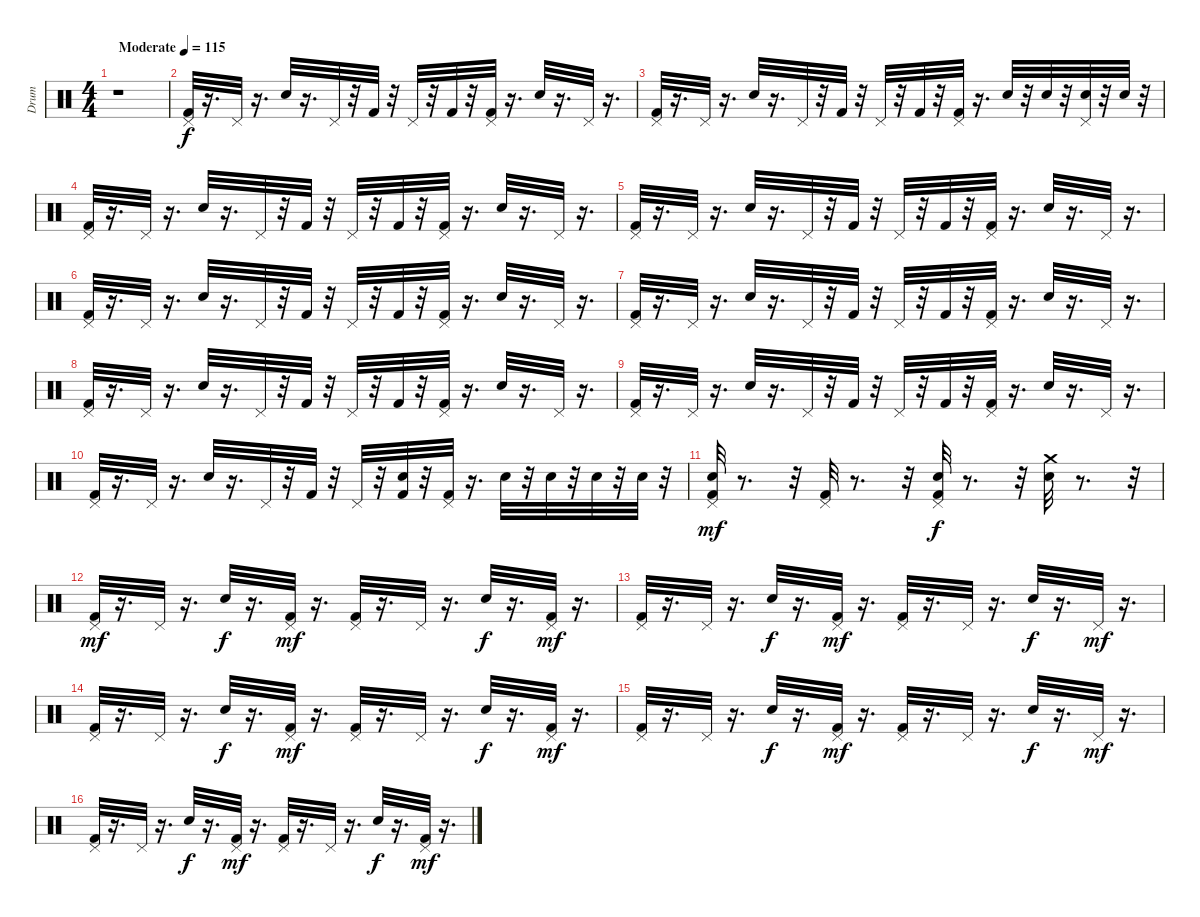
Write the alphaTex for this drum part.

\track ("Drum" "Drum") {instrument percussion}
\staff {score}
\articulation defaults
\ts (4 4)
\tempo (115 "Moderate")
\clef neutral
\ks c
r.1{dy f} |
("Kick (hit) 2" "Pedal Hi-Hat (hit)").32 r.16{d} "Pedal Hi-Hat (hit)".32 r.16{d} "Snare (hit) 2".32 r.16{d} "Pedal Hi-Hat (hit)".32 r.32 "Kick (hit) 2".32 r.32 "Pedal Hi-Hat (hit)".32 r.32 "Kick (hit) 2".32 r.32 ("Kick (hit) 2" "Pedal Hi-Hat (hit)").32 r.16{d} "Snare (hit) 2".32 r.16{d} "Pedal Hi-Hat (hit)".32 r.16{d} |
("Kick (hit) 2" "Pedal Hi-Hat (hit)").32 r.16{d} "Pedal Hi-Hat (hit)".32 r.16{d} "Snare (hit) 2".32 r.16{d} "Pedal Hi-Hat (hit)".32 r.32 "Kick (hit) 2".32 r.32 "Pedal Hi-Hat (hit)".32 r.32 "Kick (hit) 2".32 r.32 ("Kick (hit) 2" "Pedal Hi-Hat (hit)").32 r.16{d} "Snare (hit) 2".32 r.32 "Snare (hit) 2".32 r.32 ("Snare (hit) 2" "Pedal Hi-Hat (hit)").32 r.32 "Snare (hit) 2".32 r.32 |
("Kick (hit) 2" "Pedal Hi-Hat (hit)").32 r.16{d} "Pedal Hi-Hat (hit)".32 r.16{d} "Snare (hit) 2".32 r.16{d} "Pedal Hi-Hat (hit)".32 r.32 "Kick (hit) 2".32 r.32 "Pedal Hi-Hat (hit)".32 r.32 "Kick (hit) 2".32 r.32 ("Kick (hit) 2" "Pedal Hi-Hat (hit)").32 r.16{d} "Snare (hit) 2".32 r.16{d} "Pedal Hi-Hat (hit)".32 r.16{d} |
("Kick (hit) 2" "Pedal Hi-Hat (hit)").32 r.16{d} "Pedal Hi-Hat (hit)".32 r.16{d} "Snare (hit) 2".32 r.16{d} "Pedal Hi-Hat (hit)".32 r.32 "Kick (hit) 2".32 r.32 "Pedal Hi-Hat (hit)".32 r.32 "Kick (hit) 2".32 r.32 ("Kick (hit) 2" "Pedal Hi-Hat (hit)").32 r.16{d} "Snare (hit) 2".32 r.16{d} "Pedal Hi-Hat (hit)".32 r.16{d} |
("Kick (hit) 2" "Pedal Hi-Hat (hit)").32 r.16{d} "Pedal Hi-Hat (hit)".32 r.16{d} "Snare (hit) 2".32 r.16{d} "Pedal Hi-Hat (hit)".32 r.32 "Kick (hit) 2".32 r.32 "Pedal Hi-Hat (hit)".32 r.32 "Kick (hit) 2".32 r.32 ("Kick (hit) 2" "Pedal Hi-Hat (hit)").32 r.16{d} "Snare (hit) 2".32 r.16{d} "Pedal Hi-Hat (hit)".32 r.16{d} |
("Kick (hit) 2" "Pedal Hi-Hat (hit)").32 r.16{d} "Pedal Hi-Hat (hit)".32 r.16{d} "Snare (hit) 2".32 r.16{d} "Pedal Hi-Hat (hit)".32 r.32 "Kick (hit) 2".32 r.32 "Pedal Hi-Hat (hit)".32 r.32 "Kick (hit) 2".32 r.32 ("Kick (hit) 2" "Pedal Hi-Hat (hit)").32 r.16{d} "Snare (hit) 2".32 r.16{d} "Pedal Hi-Hat (hit)".32 r.16{d} |
("Kick (hit) 2" "Pedal Hi-Hat (hit)").32 r.16{d} "Pedal Hi-Hat (hit)".32 r.16{d} "Snare (hit) 2".32 r.16{d} "Pedal Hi-Hat (hit)".32 r.32 "Kick (hit) 2".32 r.32 "Pedal Hi-Hat (hit)".32 r.32 "Kick (hit) 2".32 r.32 ("Kick (hit) 2" "Pedal Hi-Hat (hit)").32 r.16{d} "Snare (hit) 2".32 r.16{d} "Pedal Hi-Hat (hit)".32 r.16{d} |
("Kick (hit) 2" "Pedal Hi-Hat (hit)").32 r.16{d} "Pedal Hi-Hat (hit)".32 r.16{d} "Snare (hit) 2".32 r.16{d} "Pedal Hi-Hat (hit)".32 r.32 "Kick (hit) 2".32 r.32 "Pedal Hi-Hat (hit)".32 r.32 "Kick (hit) 2".32 r.32 ("Kick (hit) 2" "Pedal Hi-Hat (hit)").32 r.16{d} "Snare (hit) 2".32 r.16{d} "Pedal Hi-Hat (hit)".32 r.16{d} |
("Kick (hit) 2" "Pedal Hi-Hat (hit)").32 r.16{d} "Pedal Hi-Hat (hit)".32 r.16{d} "Snare (hit) 2".32 r.16{d} "Pedal Hi-Hat (hit)".32 r.32 "Kick (hit) 2".32 r.32 "Pedal Hi-Hat (hit)".32 r.32 ("Snare (hit) 2" "Kick (hit) 2").32 r.32 ("Kick (hit) 2" "Pedal Hi-Hat (hit)").32 r.16{d} "Snare (hit) 2".32 r.32 "Snare (hit) 2".32 r.32 "Snare (hit) 2".32 r.32 "Snare (hit) 2".32 r.32 |
("Kick (hit) 2" "Snare (hit) 2" "Pedal Hi-Hat (hit)").32{dy mf} r.8{d} r.32 ("Kick (hit) 2" "Pedal Hi-Hat (hit)").32 r.8{d} r.32 ("Kick (hit) 2" "Snare (hit) 2" "Pedal Hi-Hat (hit)").32{dy f} r.8{d} r.32 ("Snare (hit) 2" "Crash medium (hit)").32 r.8{d} r.32 |
("Kick (hit) 2" "Pedal Hi-Hat (hit)").32{dy mf} r.16{d} "Pedal Hi-Hat (hit)".32 r.16{d} "Snare (hit) 2".32{dy f} r.16{d} ("Kick (hit) 2" "Pedal Hi-Hat (hit)").32{dy mf} r.16{d} ("Kick (hit) 2" "Pedal Hi-Hat (hit)").32 r.16{d} "Pedal Hi-Hat (hit)".32 r.16{d} "Snare (hit) 2".32{dy f} r.16{d} ("Kick (hit) 2" "Pedal Hi-Hat (hit)").32{dy mf} r.16{d} |
("Kick (hit) 2" "Pedal Hi-Hat (hit)").32 r.16{d} "Pedal Hi-Hat (hit)".32 r.16{d} "Snare (hit) 2".32{dy f} r.16{d} ("Kick (hit) 2" "Pedal Hi-Hat (hit)").32{dy mf} r.16{d} ("Kick (hit) 2" "Pedal Hi-Hat (hit)").32 r.16{d} "Pedal Hi-Hat (hit)".32 r.16{d} "Snare (hit) 2".32{dy f} r.16{d} "Pedal Hi-Hat (hit)".32{dy mf} r.16{d} |
("Kick (hit) 2" "Pedal Hi-Hat (hit)").32 r.16{d} "Pedal Hi-Hat (hit)".32 r.16{d} "Snare (hit) 2".32{dy f} r.16{d} ("Kick (hit) 2" "Pedal Hi-Hat (hit)").32{dy mf} r.16{d} ("Kick (hit) 2" "Pedal Hi-Hat (hit)").32 r.16{d} "Pedal Hi-Hat (hit)".32 r.16{d} "Snare (hit) 2".32{dy f} r.16{d} ("Kick (hit) 2" "Pedal Hi-Hat (hit)").32{dy mf} r.16{d} |
("Kick (hit) 2" "Pedal Hi-Hat (hit)").32 r.16{d} "Pedal Hi-Hat (hit)".32 r.16{d} "Snare (hit) 2".32{dy f} r.16{d} ("Kick (hit) 2" "Pedal Hi-Hat (hit)").32{dy mf} r.16{d} ("Kick (hit) 2" "Pedal Hi-Hat (hit)").32 r.16{d} "Pedal Hi-Hat (hit)".32 r.16{d} "Snare (hit) 2".32{dy f} r.16{d} "Pedal Hi-Hat (hit)".32{dy mf} r.16{d} |
("Kick (hit) 2" "Pedal Hi-Hat (hit)").32 r.16{d} "Pedal Hi-Hat (hit)".32 r.16{d} "Snare (hit) 2".32{dy f} r.16{d} ("Kick (hit) 2" "Pedal Hi-Hat (hit)").32{dy mf} r.16{d} ("Kick (hit) 2" "Pedal Hi-Hat (hit)").32 r.16{d} "Pedal Hi-Hat (hit)".32 r.16{d} "Snare (hit) 2".32{dy f} r.16{d} ("Kick (hit) 2" "Pedal Hi-Hat (hit)").32{dy mf} r.16{d}
